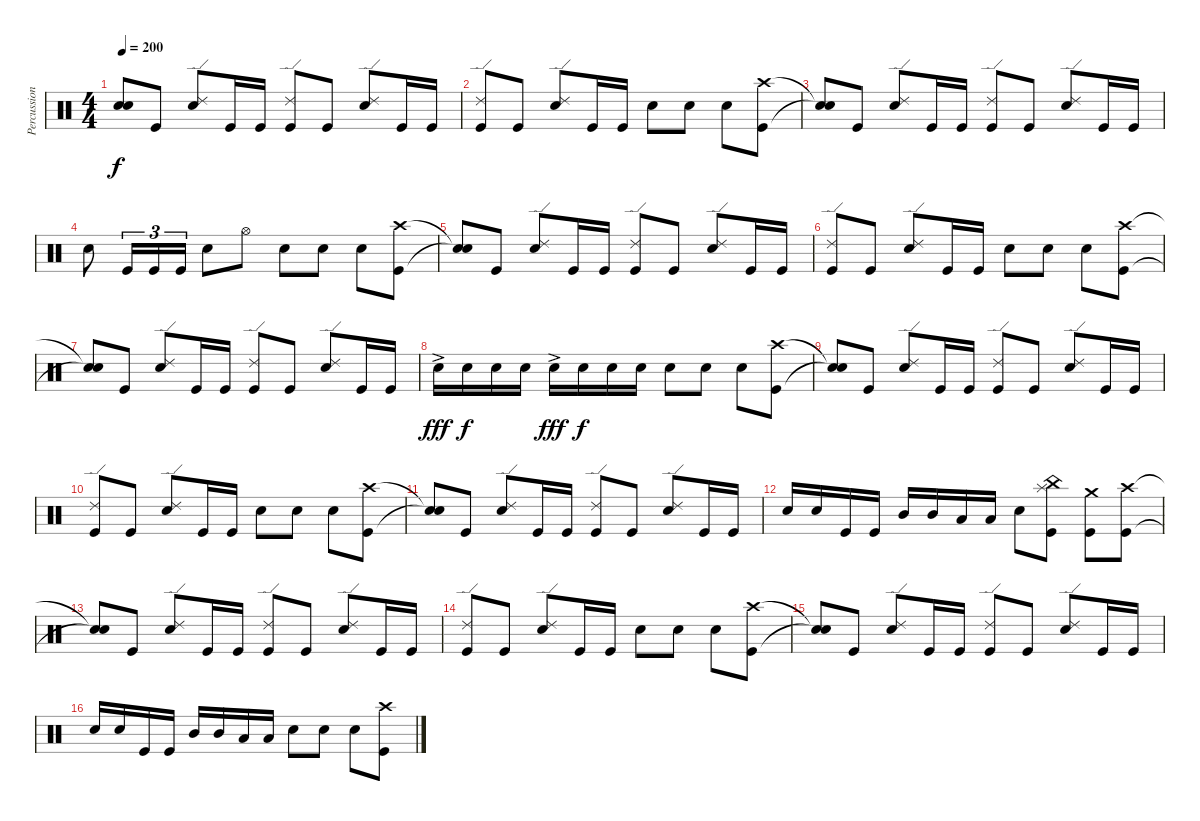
\track ("Percussioni" "Percussion") {instrument percussion}
\staff {score}
\articulation defaults
\ts (4 4)
\tempo 200
\clef neutral
\ks c
("Snare (hit)"{t} "Snare (hit)"{t}).8{dy f} "Kick (hit)".8 ("Ride (edge) 2" "Electric Snare (hit)").8 "Kick (hit)".16 "Kick (hit)".16 ("Ride (edge) 2" "Kick (hit)").8 "Kick (hit)".8 ("Ride (edge) 2" "Electric Snare (hit)").8 "Kick (hit)".16 "Kick (hit)".16 |
("Ride (edge) 2" "Kick (hit)").8 "Kick (hit)".8 ("Ride (edge) 2" "Electric Snare (hit)").8 "Kick (hit)".16 "Kick (hit)".16 "Electric Snare (hit)".8 "Electric Snare (hit)".8 "Electric Snare (hit)".8 ("Crash high (hit)" "Kick (hit)").8 |
("Snare (hit)"{t} "Snare (hit)"{t}).8 "Kick (hit)".8 ("Ride (edge) 2" "Electric Snare (hit)").8 "Kick (hit)".16 "Kick (hit)".16 ("Ride (edge) 2" "Kick (hit)").8 "Kick (hit)".8 ("Ride (edge) 2" "Electric Snare (hit)").8 "Kick (hit)".16 "Kick (hit)".16 |
"Electric Snare (hit)".8 "Kick (hit)".16{tu (3 2)} "Kick (hit)".16{tu (3 2)} "Kick (hit)".16{tu (3 2)} "Electric Snare (hit)".8 "Hi-Hat (open)".8 "Electric Snare (hit)".8 "Electric Snare (hit)".8 "Electric Snare (hit)".8 ("Crash high (hit)" "Kick (hit)").8 |
("Snare (hit)"{t} "Snare (hit)"{t}).8 "Kick (hit)".8 ("Ride (edge) 2" "Electric Snare (hit)").8 "Kick (hit)".16 "Kick (hit)".16 ("Ride (edge) 2" "Kick (hit)").8 "Kick (hit)".8 ("Ride (edge) 2" "Electric Snare (hit)").8 "Kick (hit)".16 "Kick (hit)".16 |
("Ride (edge) 2" "Kick (hit)").8 "Kick (hit)".8 ("Ride (edge) 2" "Electric Snare (hit)").8 "Kick (hit)".16 "Kick (hit)".16 "Electric Snare (hit)".8 "Electric Snare (hit)".8 "Electric Snare (hit)".8 ("Crash high (hit)" "Kick (hit)").8 |
("Snare (hit)"{t} "Snare (hit)"{t}).8 "Kick (hit)".8 ("Ride (edge) 2" "Electric Snare (hit)").8 "Kick (hit)".16 "Kick (hit)".16 ("Ride (edge) 2" "Kick (hit)").8 "Kick (hit)".8 ("Ride (edge) 2" "Electric Snare (hit)").8 "Kick (hit)".16 "Kick (hit)".16 |
"Electric Snare (hit)"{ac}.16{dy fff} "Electric Snare (hit)".16{dy f} "Electric Snare (hit)".16 "Electric Snare (hit)".16 "Electric Snare (hit)"{ac}.16{dy fff} "Electric Snare (hit)".16{dy f} "Electric Snare (hit)".16 "Electric Snare (hit)".16 "Electric Snare (hit)".8 "Electric Snare (hit)".8 "Electric Snare (hit)".8 ("Crash high (hit)" "Kick (hit)").8 |
("Snare (hit)"{t} "Snare (hit)"{t}).8 "Kick (hit)".8 ("Ride (edge) 2" "Electric Snare (hit)").8 "Kick (hit)".16 "Kick (hit)".16 ("Ride (edge) 2" "Kick (hit)").8 "Kick (hit)".8 ("Ride (edge) 2" "Electric Snare (hit)").8 "Kick (hit)".16 "Kick (hit)".16 |
("Ride (edge) 2" "Kick (hit)").8 "Kick (hit)".8 ("Ride (edge) 2" "Electric Snare (hit)").8 "Kick (hit)".16 "Kick (hit)".16 "Electric Snare (hit)".8 "Electric Snare (hit)".8 "Electric Snare (hit)".8 ("Crash high (hit)" "Kick (hit)").8 |
("Snare (hit)"{t} "Snare (hit)"{t}).8 "Kick (hit)".8 ("Ride (edge) 2" "Electric Snare (hit)").8 "Kick (hit)".16 "Kick (hit)".16 ("Ride (edge) 2" "Kick (hit)").8 "Kick (hit)".8 ("Ride (edge) 2" "Electric Snare (hit)").8 "Kick (hit)".16 "Kick (hit)".16 |
"Electric Snare (hit)".16 "Electric Snare (hit)".16 "Kick (hit)".16 "Kick (hit)".16 "Mid Tom (hit)".16 "Mid Tom (hit)".16 "Low Tom (hit)".16 "Low Tom (hit)".16 "Electric Snare (hit)".8 ("Splash (hit)" "China (hit)" "Kick (hit)").8 ("Crash medium (hit)" "Kick (hit)").8 ("Crash high (hit)" "Kick (hit)").8 |
("Snare (hit)"{t} "Snare (hit)"{t}).8 "Kick (hit)".8 ("Ride (edge) 2" "Electric Snare (hit)").8 "Kick (hit)".16 "Kick (hit)".16 ("Ride (edge) 2" "Kick (hit)").8 "Kick (hit)".8 ("Ride (edge) 2" "Electric Snare (hit)").8 "Kick (hit)".16 "Kick (hit)".16 |
("Ride (edge) 2" "Kick (hit)").8 "Kick (hit)".8 ("Ride (edge) 2" "Electric Snare (hit)").8 "Kick (hit)".16 "Kick (hit)".16 "Electric Snare (hit)".8 "Electric Snare (hit)".8 "Electric Snare (hit)".8 ("Crash high (hit)" "Kick (hit)").8 |
("Snare (hit)"{t} "Snare (hit)"{t}).8 "Kick (hit)".8 ("Ride (edge) 2" "Electric Snare (hit)").8 "Kick (hit)".16 "Kick (hit)".16 ("Ride (edge) 2" "Kick (hit)").8 "Kick (hit)".8 ("Ride (edge) 2" "Electric Snare (hit)").8 "Kick (hit)".16 "Kick (hit)".16 |
"Electric Snare (hit)".16 "Electric Snare (hit)".16 "Kick (hit)".16 "Kick (hit)".16 "Mid Tom (hit)".16 "Mid Tom (hit)".16 "Low Tom (hit)".16 "Low Tom (hit)".16 "Electric Snare (hit)".8 "Electric Snare (hit)".8 "Electric Snare (hit)".8 ("Crash high (hit)" "Kick (hit)").8
